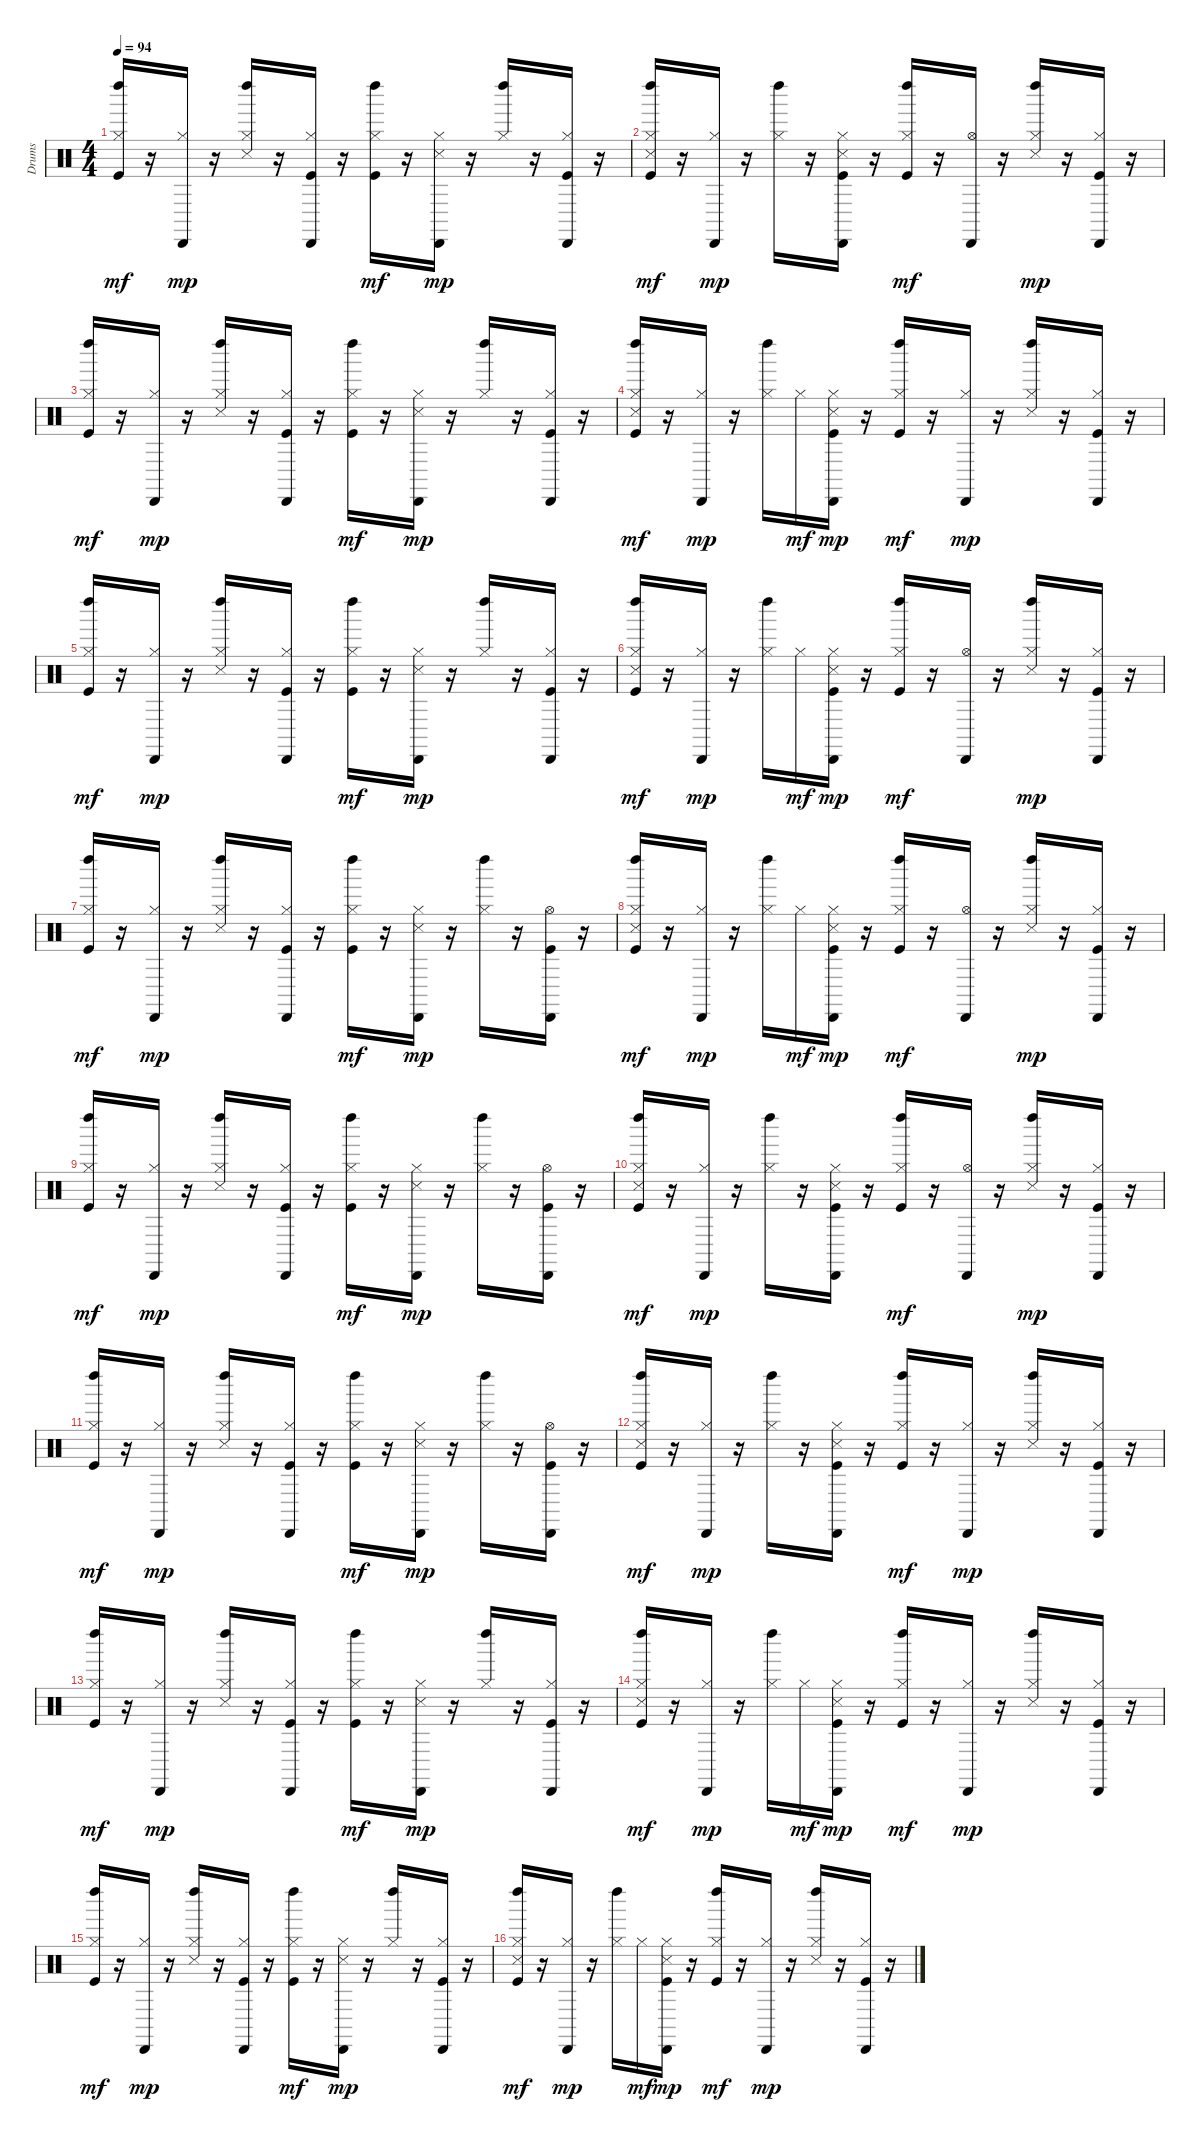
\track ("Drums" "Drums") {instrument percussion}
\staff {score}
\articulation defaults
\ts (4 4)
\tempo 94
\clef neutral
\ks c
("Left Maraca (hit)" "Hi-Hat (closed)" "Kick (hit)").16{dy mf} r.16 ("Cabasa (hit)" "Hi-Hat (closed)").16{dy mp} r.16 ("Left Maraca (hit)" "Hi-Hat (closed)" "Snare (side stick) 3").16 r.16 ("Cabasa (hit)" "Hi-Hat (closed)" "Kick (hit)").16 r.16 ("Left Maraca (hit)" "Hi-Hat (closed)" "Kick (hit)").16{dy mf} r.16 ("Cabasa (hit)" "Hi-Hat (closed)" "Snare (side stick) 3").16{dy mp} r.16 ("Left Maraca (hit)" "Hi-Hat (closed)").16 r.16 ("Cabasa (hit)" "Hi-Hat (closed)" "Kick (hit)").16 r.16 |
("Left Maraca (hit)" "Hi-Hat (closed)" "Snare (side stick) 3" "Kick (hit)").16{dy mf} r.16 ("Cabasa (hit)" "Hi-Hat (closed)").16{dy mp} r.16 ("Left Maraca (hit)" "Hi-Hat (closed)").16 r.16 ("Cabasa (hit)" "Hi-Hat (closed)" "Snare (side stick) 3" "Kick (hit)").16 r.16 ("Left Maraca (hit)" "Hi-Hat (closed)" "Kick (hit)").16{dy mf} r.16 ("Cabasa (hit)" "Hi-Hat (open)").16 r.16 ("Left Maraca (hit)" "Hi-Hat (closed)" "Snare (side stick) 3").16{dy mp} r.16 ("Cabasa (hit)" "Hi-Hat (closed)" "Kick (hit)").16 r.16 |
("Left Maraca (hit)" "Hi-Hat (closed)" "Kick (hit)").16{dy mf} r.16 ("Cabasa (hit)" "Hi-Hat (closed)").16{dy mp} r.16 ("Left Maraca (hit)" "Hi-Hat (closed)" "Snare (side stick) 3").16 r.16 ("Cabasa (hit)" "Hi-Hat (closed)" "Kick (hit)").16 r.16 ("Left Maraca (hit)" "Hi-Hat (closed)" "Kick (hit)").16{dy mf} r.16 ("Cabasa (hit)" "Hi-Hat (closed)" "Snare (side stick) 3").16{dy mp} r.16 ("Left Maraca (hit)" "Hi-Hat (closed)").16 r.16 ("Cabasa (hit)" "Hi-Hat (closed)" "Kick (hit)").16 r.16 |
("Left Maraca (hit)" "Hi-Hat (closed)" "Snare (side stick) 3" "Kick (hit)").16{dy mf} r.16 ("Cabasa (hit)" "Hi-Hat (closed)").16{dy mp} r.16 ("Left Maraca (hit)" "Hi-Hat (closed)").16 "Hi-Hat (closed)".16{dy mf} ("Cabasa (hit)" "Hi-Hat (closed)" "Snare (side stick) 3" "Kick (hit)").16{dy mp} r.16 ("Left Maraca (hit)" "Hi-Hat (closed)" "Kick (hit)").16{dy mf} r.16 ("Cabasa (hit)" "Hi-Hat (closed)").16{dy mp} r.16 ("Left Maraca (hit)" "Hi-Hat (closed)" "Snare (side stick) 3").16 r.16 ("Cabasa (hit)" "Hi-Hat (closed)" "Kick (hit)").16 r.16 |
("Left Maraca (hit)" "Hi-Hat (closed)" "Kick (hit)").16{dy mf} r.16 ("Cabasa (hit)" "Hi-Hat (closed)").16{dy mp} r.16 ("Left Maraca (hit)" "Hi-Hat (closed)" "Snare (side stick) 3").16 r.16 ("Cabasa (hit)" "Hi-Hat (closed)" "Kick (hit)").16 r.16 ("Left Maraca (hit)" "Hi-Hat (closed)" "Kick (hit)").16{dy mf} r.16 ("Cabasa (hit)" "Hi-Hat (closed)" "Snare (side stick) 3").16{dy mp} r.16 ("Left Maraca (hit)" "Hi-Hat (closed)").16 r.16 ("Cabasa (hit)" "Hi-Hat (closed)" "Kick (hit)").16 r.16 |
("Left Maraca (hit)" "Hi-Hat (closed)" "Snare (side stick) 3" "Kick (hit)").16{dy mf} r.16 ("Cabasa (hit)" "Hi-Hat (closed)").16{dy mp} r.16 ("Left Maraca (hit)" "Hi-Hat (closed)").16 "Hi-Hat (closed)".16{dy mf} ("Cabasa (hit)" "Hi-Hat (closed)" "Snare (side stick) 3" "Kick (hit)").16{dy mp} r.16 ("Left Maraca (hit)" "Hi-Hat (closed)" "Kick (hit)").16{dy mf} r.16 ("Cabasa (hit)" "Hi-Hat (open)").16 r.16 ("Left Maraca (hit)" "Hi-Hat (closed)" "Snare (side stick) 3").16{dy mp} r.16 ("Cabasa (hit)" "Hi-Hat (closed)" "Kick (hit)").16 r.16 |
("Left Maraca (hit)" "Hi-Hat (closed)" "Kick (hit)").16{dy mf} r.16 ("Cabasa (hit)" "Hi-Hat (closed)").16{dy mp} r.16 ("Left Maraca (hit)" "Hi-Hat (closed)" "Snare (side stick) 3").16 r.16 ("Cabasa (hit)" "Hi-Hat (closed)" "Kick (hit)").16 r.16 ("Left Maraca (hit)" "Hi-Hat (closed)" "Kick (hit)").16{dy mf} r.16 ("Cabasa (hit)" "Hi-Hat (closed)" "Snare (side stick) 3").16{dy mp} r.16 ("Left Maraca (hit)" "Hi-Hat (closed)").16 r.16 ("Cabasa (hit)" "Hi-Hat (open)" "Kick (hit)").16 r.16 |
("Left Maraca (hit)" "Hi-Hat (closed)" "Snare (side stick) 3" "Kick (hit)").16{dy mf} r.16 ("Cabasa (hit)" "Hi-Hat (closed)").16{dy mp} r.16 ("Left Maraca (hit)" "Hi-Hat (closed)").16 "Hi-Hat (closed)".16{dy mf} ("Cabasa (hit)" "Hi-Hat (closed)" "Snare (side stick) 3" "Kick (hit)").16{dy mp} r.16 ("Left Maraca (hit)" "Hi-Hat (closed)" "Kick (hit)").16{dy mf} r.16 ("Cabasa (hit)" "Hi-Hat (open)").16 r.16 ("Left Maraca (hit)" "Hi-Hat (closed)" "Snare (side stick) 3").16{dy mp} r.16 ("Cabasa (hit)" "Hi-Hat (closed)" "Kick (hit)").16 r.16 |
("Left Maraca (hit)" "Hi-Hat (closed)" "Kick (hit)").16{dy mf} r.16 ("Cabasa (hit)" "Hi-Hat (closed)").16{dy mp} r.16 ("Left Maraca (hit)" "Hi-Hat (closed)" "Snare (side stick) 3").16 r.16 ("Cabasa (hit)" "Hi-Hat (closed)" "Kick (hit)").16 r.16 ("Left Maraca (hit)" "Hi-Hat (closed)" "Kick (hit)").16{dy mf} r.16 ("Cabasa (hit)" "Hi-Hat (closed)" "Snare (side stick) 3").16{dy mp} r.16 ("Left Maraca (hit)" "Hi-Hat (closed)").16 r.16 ("Cabasa (hit)" "Hi-Hat (open)" "Kick (hit)").16 r.16 |
("Left Maraca (hit)" "Hi-Hat (closed)" "Snare (side stick) 3" "Kick (hit)").16{dy mf} r.16 ("Cabasa (hit)" "Hi-Hat (closed)").16{dy mp} r.16 ("Left Maraca (hit)" "Hi-Hat (closed)").16 r.16 ("Cabasa (hit)" "Hi-Hat (closed)" "Snare (side stick) 3" "Kick (hit)").16 r.16 ("Left Maraca (hit)" "Hi-Hat (closed)" "Kick (hit)").16{dy mf} r.16 ("Cabasa (hit)" "Hi-Hat (open)").16 r.16 ("Left Maraca (hit)" "Hi-Hat (closed)" "Snare (side stick) 3").16{dy mp} r.16 ("Cabasa (hit)" "Hi-Hat (closed)" "Kick (hit)").16 r.16 |
("Left Maraca (hit)" "Hi-Hat (closed)" "Kick (hit)").16{dy mf} r.16 ("Cabasa (hit)" "Hi-Hat (closed)").16{dy mp} r.16 ("Left Maraca (hit)" "Hi-Hat (closed)" "Snare (side stick) 3").16 r.16 ("Cabasa (hit)" "Hi-Hat (closed)" "Kick (hit)").16 r.16 ("Left Maraca (hit)" "Hi-Hat (closed)" "Kick (hit)").16{dy mf} r.16 ("Cabasa (hit)" "Hi-Hat (closed)" "Snare (side stick) 3").16{dy mp} r.16 ("Left Maraca (hit)" "Hi-Hat (closed)").16 r.16 ("Cabasa (hit)" "Hi-Hat (open)" "Kick (hit)").16 r.16 |
("Left Maraca (hit)" "Hi-Hat (closed)" "Snare (side stick) 3" "Kick (hit)").16{dy mf} r.16 ("Cabasa (hit)" "Hi-Hat (closed)").16{dy mp} r.16 ("Left Maraca (hit)" "Hi-Hat (closed)").16 r.16 ("Cabasa (hit)" "Hi-Hat (closed)" "Snare (side stick) 3" "Kick (hit)").16 r.16 ("Left Maraca (hit)" "Hi-Hat (closed)" "Kick (hit)").16{dy mf} r.16 ("Cabasa (hit)" "Hi-Hat (closed)").16{dy mp} r.16 ("Left Maraca (hit)" "Hi-Hat (closed)" "Snare (side stick) 3").16 r.16 ("Cabasa (hit)" "Hi-Hat (closed)" "Kick (hit)").16 r.16 |
("Left Maraca (hit)" "Hi-Hat (closed)" "Kick (hit)").16{dy mf} r.16 ("Cabasa (hit)" "Hi-Hat (closed)").16{dy mp} r.16 ("Left Maraca (hit)" "Hi-Hat (closed)" "Snare (side stick) 3").16 r.16 ("Cabasa (hit)" "Hi-Hat (closed)" "Kick (hit)").16 r.16 ("Left Maraca (hit)" "Hi-Hat (closed)" "Kick (hit)").16{dy mf} r.16 ("Cabasa (hit)" "Hi-Hat (closed)" "Snare (side stick) 3").16{dy mp} r.16 ("Left Maraca (hit)" "Hi-Hat (closed)").16 r.16 ("Cabasa (hit)" "Hi-Hat (closed)" "Kick (hit)").16 r.16 |
("Left Maraca (hit)" "Hi-Hat (closed)" "Snare (side stick) 3" "Kick (hit)").16{dy mf} r.16 ("Cabasa (hit)" "Hi-Hat (closed)").16{dy mp} r.16 ("Left Maraca (hit)" "Hi-Hat (closed)").16 "Hi-Hat (closed)".16{dy mf} ("Cabasa (hit)" "Hi-Hat (closed)" "Snare (side stick) 3" "Kick (hit)").16{dy mp} r.16 ("Left Maraca (hit)" "Hi-Hat (closed)" "Kick (hit)").16{dy mf} r.16 ("Cabasa (hit)" "Hi-Hat (closed)").16{dy mp} r.16 ("Left Maraca (hit)" "Hi-Hat (closed)" "Snare (side stick) 3").16 r.16 ("Cabasa (hit)" "Hi-Hat (closed)" "Kick (hit)").16 r.16 |
("Left Maraca (hit)" "Hi-Hat (closed)" "Kick (hit)").16{dy mf} r.16 ("Cabasa (hit)" "Hi-Hat (closed)").16{dy mp} r.16 ("Left Maraca (hit)" "Hi-Hat (closed)" "Snare (side stick) 3").16 r.16 ("Cabasa (hit)" "Hi-Hat (closed)" "Kick (hit)").16 r.16 ("Left Maraca (hit)" "Hi-Hat (closed)" "Kick (hit)").16{dy mf} r.16 ("Cabasa (hit)" "Hi-Hat (closed)" "Snare (side stick) 3").16{dy mp} r.16 ("Left Maraca (hit)" "Hi-Hat (closed)").16 r.16 ("Cabasa (hit)" "Hi-Hat (closed)" "Kick (hit)").16 r.16 |
("Left Maraca (hit)" "Hi-Hat (closed)" "Snare (side stick) 3" "Kick (hit)").16{dy mf} r.16 ("Cabasa (hit)" "Hi-Hat (closed)").16{dy mp} r.16 ("Left Maraca (hit)" "Hi-Hat (closed)").16 "Hi-Hat (closed)".16{dy mf} ("Cabasa (hit)" "Hi-Hat (closed)" "Snare (side stick) 3" "Kick (hit)").16{dy mp} r.16 ("Left Maraca (hit)" "Hi-Hat (closed)" "Kick (hit)").16{dy mf} r.16 ("Cabasa (hit)" "Hi-Hat (closed)").16{dy mp} r.16 ("Left Maraca (hit)" "Hi-Hat (closed)" "Snare (side stick) 3").16 r.16 ("Cabasa (hit)" "Hi-Hat (closed)" "Kick (hit)").16 r.16
